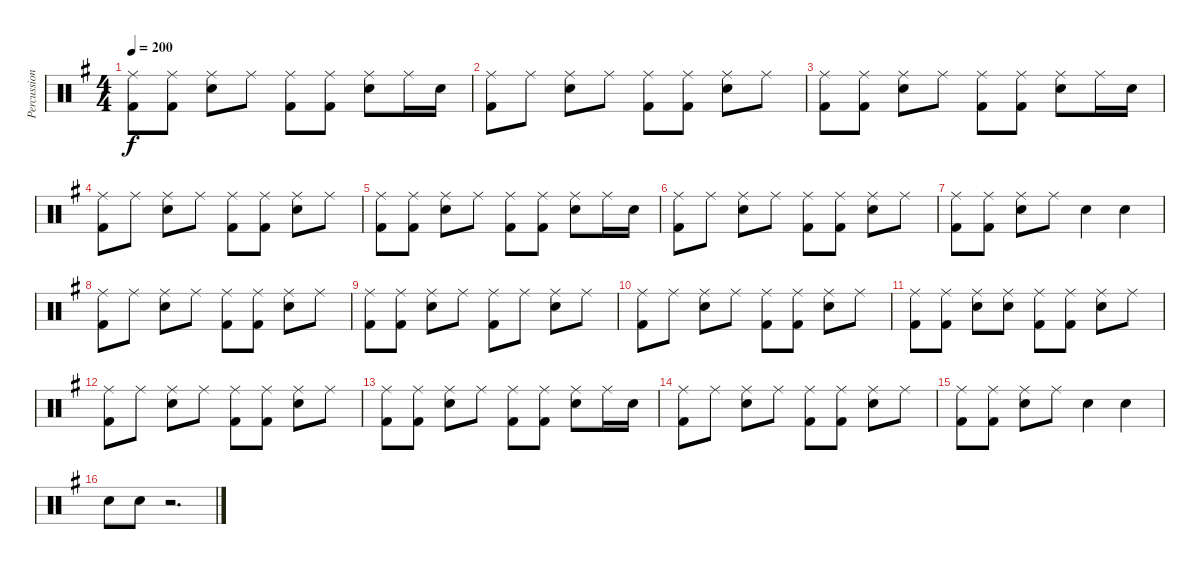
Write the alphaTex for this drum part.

\track ("Percussion" "Percussion") {instrument percussion}
\staff {score}
\articulation defaults
\ts (4 4)
\tempo 200
\clef neutral
\ks eminor
("Ride (middle)" "Kick (hit) 2").8{dy f} ("Ride (middle)" "Kick (hit) 2").8 ("Ride (middle)" "Snare (hit) 2").8 "Ride (middle)".8 ("Ride (middle)" "Kick (hit) 2").8 ("Ride (middle)" "Kick (hit) 2").8 ("Ride (middle)" "Snare (hit) 2").8 "Ride (middle)".16 "Snare (hit) 2".16 |
("Ride (middle)" "Kick (hit) 2").8 "Ride (middle)".8 ("Ride (middle)" "Snare (hit) 2").8 "Ride (middle)".8 ("Ride (middle)" "Kick (hit) 2").8 ("Ride (middle)" "Kick (hit) 2").8 ("Ride (middle)" "Snare (hit) 2").8 "Ride (middle)".8 |
("Ride (middle)" "Kick (hit) 2").8 ("Ride (middle)" "Kick (hit) 2").8 ("Ride (middle)" "Snare (hit) 2").8 "Ride (middle)".8 ("Ride (middle)" "Kick (hit) 2").8 ("Ride (middle)" "Kick (hit) 2").8 ("Ride (middle)" "Snare (hit) 2").8 "Ride (middle)".16 "Snare (hit) 2".16 |
("Ride (middle)" "Kick (hit) 2").8 "Ride (middle)".8 ("Ride (middle)" "Snare (hit) 2").8 "Ride (middle)".8 ("Ride (middle)" "Kick (hit) 2").8 ("Ride (middle)" "Kick (hit) 2").8 ("Ride (middle)" "Snare (hit) 2").8 "Ride (middle)".8 |
("Ride (middle)" "Kick (hit) 2").8 ("Ride (middle)" "Kick (hit) 2").8 ("Ride (middle)" "Snare (hit) 2").8 "Ride (middle)".8 ("Ride (middle)" "Kick (hit) 2").8 ("Ride (middle)" "Kick (hit) 2").8 ("Ride (middle)" "Snare (hit) 2").8 "Ride (middle)".16 "Snare (hit) 2".16 |
("Ride (middle)" "Kick (hit) 2").8 "Ride (middle)".8 ("Ride (middle)" "Snare (hit) 2").8 "Ride (middle)".8 ("Ride (middle)" "Kick (hit) 2").8 ("Ride (middle)" "Kick (hit) 2").8 ("Ride (middle)" "Snare (hit) 2").8 "Ride (middle)".8 |
("Ride (middle)" "Kick (hit) 2").8 ("Ride (middle)" "Kick (hit) 2").8 ("Ride (middle)" "Snare (hit) 2").8 "Ride (middle)".8 "Snare (hit) 2".4 "Snare (hit) 2".4 |
("Ride (middle)" "Kick (hit) 2").8 "Ride (middle)".8 ("Ride (middle)" "Snare (hit) 2").8 "Ride (middle)".8 ("Ride (middle)" "Kick (hit) 2").8 ("Ride (middle)" "Kick (hit) 2").8 ("Ride (middle)" "Snare (hit) 2").8 "Ride (middle)".8 |
("Ride (middle)" "Kick (hit) 2").8 ("Ride (middle)" "Kick (hit) 2").8 ("Ride (middle)" "Snare (hit) 2").8 "Ride (middle)".8 ("Ride (middle)" "Kick (hit) 2").8 "Ride (middle)".8 ("Ride (middle)" "Snare (hit) 2").8 "Ride (middle)".8 |
("Ride (middle)" "Kick (hit) 2").8 "Ride (middle)".8 ("Ride (middle)" "Snare (hit) 2").8 "Ride (middle)".8 ("Ride (middle)" "Kick (hit) 2").8 ("Ride (middle)" "Kick (hit) 2").8 ("Ride (middle)" "Snare (hit) 2").8 "Ride (middle)".8 |
("Ride (middle)" "Kick (hit) 2").8 ("Ride (middle)" "Kick (hit) 2").8 ("Ride (middle)" "Snare (hit) 2").8 ("Ride (middle)" "Snare (hit) 2").8 ("Ride (middle)" "Kick (hit) 2").8 ("Ride (middle)" "Kick (hit) 2").8 ("Ride (middle)" "Snare (hit) 2").8 "Ride (middle)".8 |
("Ride (middle)" "Kick (hit) 2").8 "Ride (middle)".8 ("Ride (middle)" "Snare (hit) 2").8 "Ride (middle)".8 ("Ride (middle)" "Kick (hit) 2").8 ("Ride (middle)" "Kick (hit) 2").8 ("Ride (middle)" "Snare (hit) 2").8 "Ride (middle)".8 |
("Ride (middle)" "Kick (hit) 2").8 ("Ride (middle)" "Kick (hit) 2").8 ("Ride (middle)" "Snare (hit) 2").8 "Ride (middle)".8 ("Ride (middle)" "Kick (hit) 2").8 ("Ride (middle)" "Kick (hit) 2").8 ("Ride (middle)" "Snare (hit) 2").8 "Ride (middle)".16 "Snare (hit) 2".16 |
("Ride (middle)" "Kick (hit) 2").8 "Ride (middle)".8 ("Ride (middle)" "Snare (hit) 2").8 "Ride (middle)".8 ("Ride (middle)" "Kick (hit) 2").8 ("Ride (middle)" "Kick (hit) 2").8 ("Ride (middle)" "Snare (hit) 2").8 "Ride (middle)".8 |
("Ride (middle)" "Kick (hit) 2").8 ("Ride (middle)" "Kick (hit) 2").8 ("Ride (middle)" "Snare (hit) 2").8 "Ride (middle)".8 "Snare (hit) 2".4 "Snare (hit) 2".4 |
"Snare (hit) 2".8 "Snare (hit) 2".8 r.2{d}
